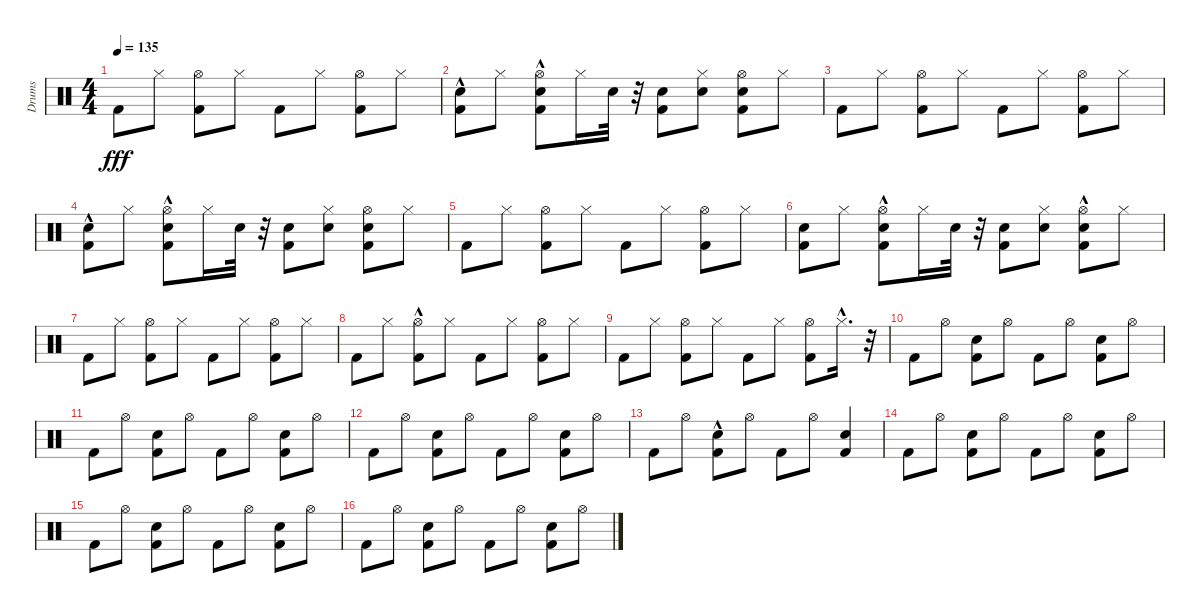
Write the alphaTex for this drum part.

\track ("Drums" "Drums") {instrument percussion}
\staff {score}
\articulation defaults
\ts (4 4)
\tempo 135
\clef neutral
\ks c "Kick (hit) 2".8{dy fff} "Hi-Hat (closed)".8
("Kick (hit) 2" "Hi-Hat (open)").8 "Hi-Hat (closed)".8 "Kick (hit) 2".8 "Hi-Hat (closed)".8 ("Kick (hit) 2" "Hi-Hat (open)").8 "Hi-Hat (closed)".8 |
("Kick (hit) 2" "Hand Clap (hit)"{hac}).8 "Hi-Hat (closed)".8 ("Kick (hit) 2" "Hi-Hat (open)" "Hand Clap (hit)"{hac}).8 "Hi-Hat (closed)".16 "Hand Clap (hit)".32 r.32 ("Kick (hit) 2" "Hand Clap (hit)").8 ("Hi-Hat (closed)" "Hand Clap (hit)").8 ("Kick (hit) 2" "Hi-Hat (open)" "Hand Clap (hit)").8 "Hi-Hat (closed)".8 |
"Kick (hit) 2".8 "Hi-Hat (closed)".8 ("Kick (hit) 2" "Hi-Hat (open)").8 "Hi-Hat (closed)".8 "Kick (hit) 2".8 "Hi-Hat (closed)".8 ("Kick (hit) 2" "Hi-Hat (open)").8 "Hi-Hat (closed)".8 |
("Kick (hit) 2" "Hand Clap (hit)"{hac}).8 "Hi-Hat (closed)".8 ("Kick (hit) 2" "Hi-Hat (open)"{hac} "Hand Clap (hit)"{hac}).8 "Hi-Hat (closed)".16 "Hand Clap (hit)".32 r.32 ("Kick (hit) 2" "Hand Clap (hit)").8 ("Hi-Hat (closed)" "Hand Clap (hit)").8 ("Kick (hit) 2" "Hi-Hat (open)" "Hand Clap (hit)").8 "Hi-Hat (closed)".8 |
"Kick (hit) 2".8 "Hi-Hat (closed)".8 ("Kick (hit) 2" "Hi-Hat (open)").8 "Hi-Hat (closed)".8 "Kick (hit) 2".8 "Hi-Hat (closed)".8 ("Kick (hit) 2" "Hi-Hat (open)").8 "Hi-Hat (closed)".8 |
("Kick (hit) 2" "Hand Clap (hit)").8 "Hi-Hat (closed)".8 ("Kick (hit) 2" "Hi-Hat (open)" "Hand Clap (hit)"{hac}).8 "Hi-Hat (closed)".16 "Hand Clap (hit)".32 r.32 ("Kick (hit) 2" "Hand Clap (hit)").8 ("Hi-Hat (closed)" "Hand Clap (hit)").8 ("Kick (hit) 2" "Hi-Hat (open)" "Hand Clap (hit)"{hac}).8 "Hi-Hat (closed)".8 |
"Kick (hit) 2".8 "Hi-Hat (closed)".8 ("Kick (hit) 2" "Hi-Hat (open)").8 "Hi-Hat (closed)".8 "Kick (hit) 2".8 "Hi-Hat (closed)".8 ("Kick (hit) 2" "Hi-Hat (open)").8 "Hi-Hat (closed)".8 |
"Kick (hit) 2".8 "Hi-Hat (closed)".8 ("Kick (hit) 2" "Hi-Hat (open)"{hac}).8 "Hi-Hat (closed)".8 "Kick (hit) 2".8 "Hi-Hat (closed)".8 ("Kick (hit) 2" "Hi-Hat (open)").8 "Hi-Hat (closed)".8 |
"Kick (hit) 2".8 "Hi-Hat (closed)".8 ("Kick (hit) 2" "Hi-Hat (open)").8 "Hi-Hat (closed)".8 "Kick (hit) 2".8 "Hi-Hat (closed)".8 ("Kick (hit) 2" "Hi-Hat (open)").8 "Hi-Hat (closed)"{hac}.16{d} r.32 |
"Kick (hit) 2".8 "Hi-Hat (open)".8 ("Kick (hit) 2" "Snare (hit) 2").8 "Hi-Hat (open)".8 "Kick (hit) 2".8 "Hi-Hat (open)".8 ("Kick (hit) 2" "Snare (hit) 2").8 "Hi-Hat (open)".8 |
"Kick (hit) 2".8 "Hi-Hat (open)".8 ("Kick (hit) 2" "Snare (hit) 2").8 "Hi-Hat (open)".8 "Kick (hit) 2".8 "Hi-Hat (open)".8 ("Kick (hit) 2" "Snare (hit) 2").8 "Hi-Hat (open)".8 |
"Kick (hit) 2".8 "Hi-Hat (open)".8 ("Kick (hit) 2" "Snare (hit) 2").8 "Hi-Hat (open)".8 "Kick (hit) 2".8 "Hi-Hat (open)".8 ("Kick (hit) 2" "Snare (hit) 2").8 "Hi-Hat (open)".8 |
"Kick (hit) 2".8 "Hi-Hat (open)".8 ("Kick (hit) 2" "Snare (hit) 2"{hac}).8 "Hi-Hat (open)".8 "Kick (hit) 2".8 "Hi-Hat (open)".8 ("Kick (hit) 2" "Snare (hit) 2").4 |
"Kick (hit) 2".8 "Hi-Hat (open)".8 ("Kick (hit) 2" "Snare (hit) 2").8 "Hi-Hat (open)".8 "Kick (hit) 2".8 "Hi-Hat (open)".8 ("Kick (hit) 2" "Snare (hit) 2").8 "Hi-Hat (open)".8 |
"Kick (hit) 2".8 "Hi-Hat (open)".8 ("Kick (hit) 2" "Snare (hit) 2").8 "Hi-Hat (open)".8 "Kick (hit) 2".8 "Hi-Hat (open)".8 ("Kick (hit) 2" "Snare (hit) 2").8 "Hi-Hat (open)".8 |
"Kick (hit) 2".8 "Hi-Hat (open)".8 ("Kick (hit) 2" "Snare (hit) 2").8 "Hi-Hat (open)".8 "Kick (hit) 2".8 "Hi-Hat (open)".8 ("Kick (hit) 2" "Snare (hit) 2").8 "Hi-Hat (open)".8
